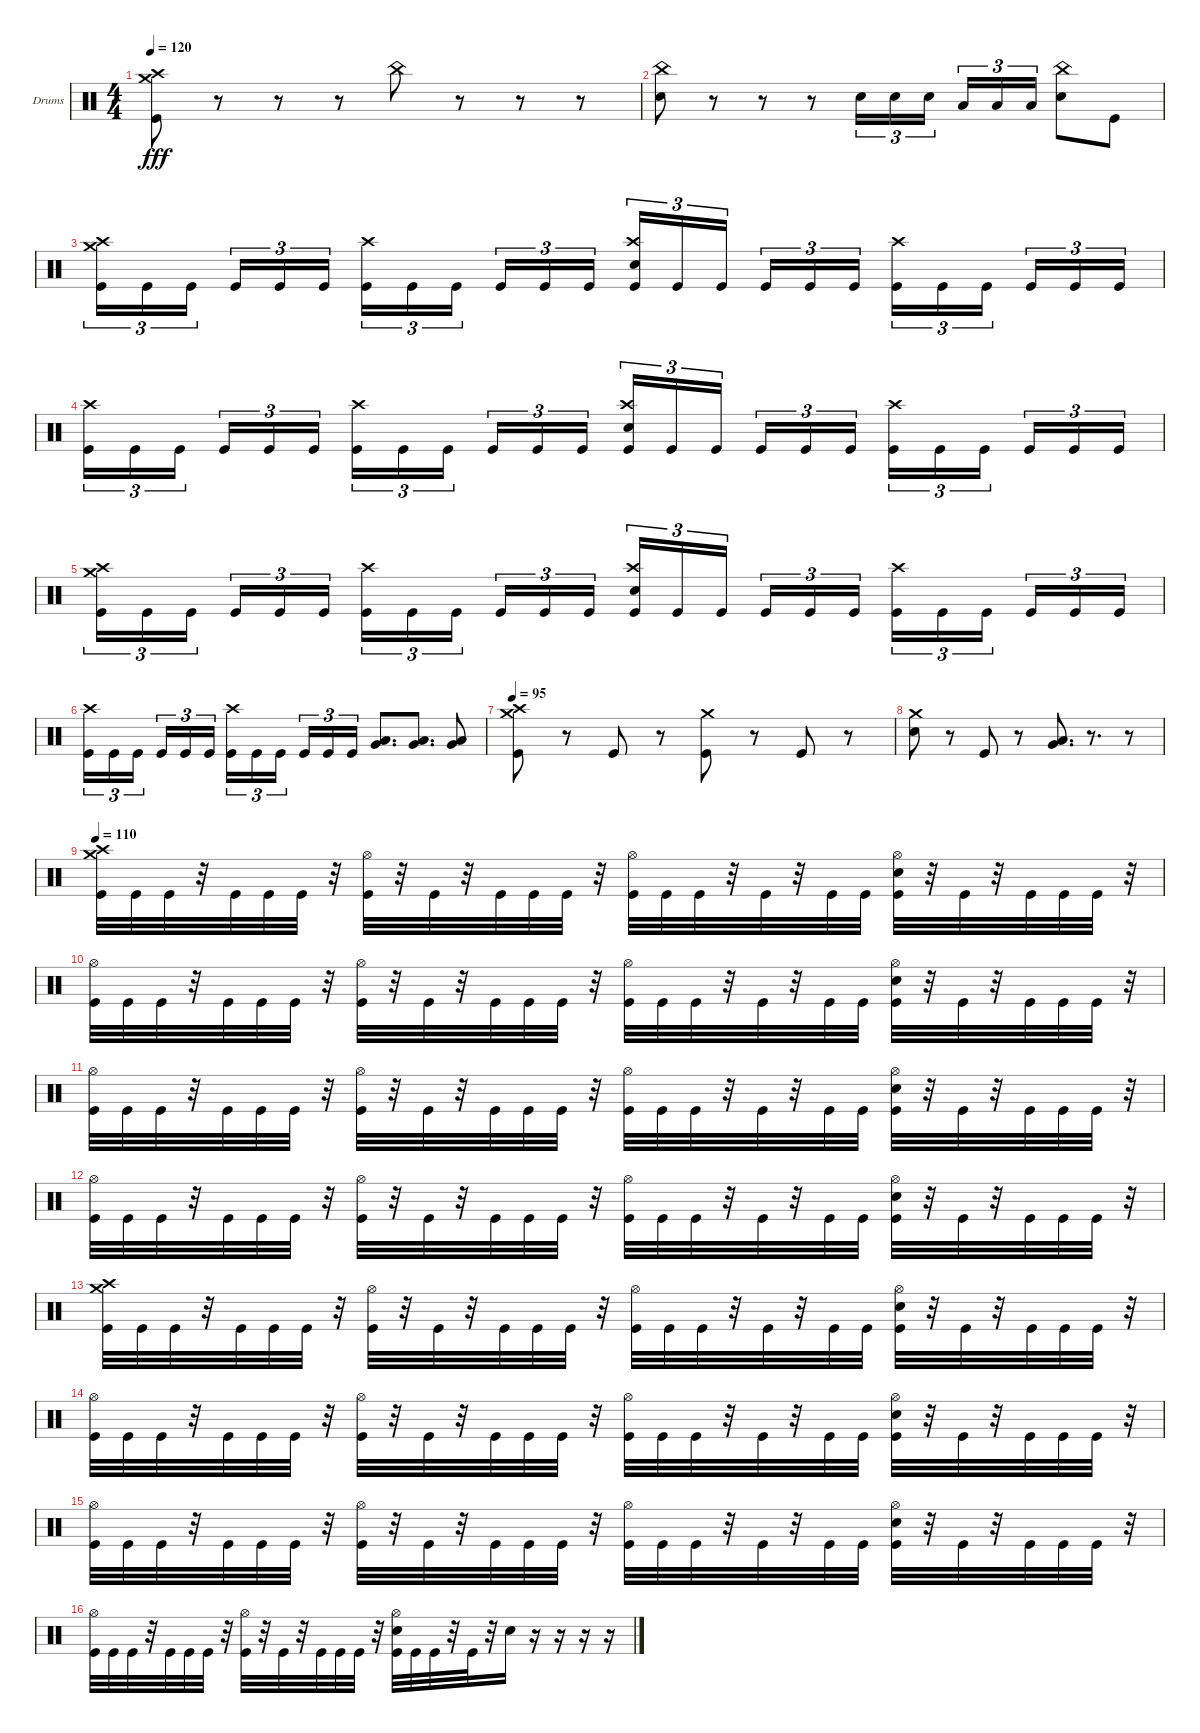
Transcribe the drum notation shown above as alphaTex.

\bracketExtendMode groupsimilarinstruments
\firstSystemTrackNameOrientation horizontal
\otherSystemsTrackNameOrientation horizontal
\track ("Drumkit" "Drums") {instrument percussion}
\staff {score}
\articulation defaults
\ts (4 4)
\tempo 120
\clef neutral
\ks c
("Kick (hit)" "Crash high (hit)" "Crash medium (hit)").8{dy fff} r.8 r.8 r.8 "China (hit)".8 r.8 r.8 r.8 |
("Snare (hit) 2" "China (hit)").8 r.8 r.8 r.8 "Snare (hit) 2".16{tu (3 2)} "Snare (hit) 2".16{tu (3 2)} "Snare (hit) 2".16{tu (3 2)} "Low Tom (hit)".16{tu (3 2)} "Low Tom (hit)".16{tu (3 2)} "Low Tom (hit)".16{tu (3 2)} ("Snare (hit) 2" "China (hit)").8 "Kick (hit)".8 |
("Kick (hit)" "Crash high (hit)" "Crash medium (hit)").16{tu (3 2)} "Kick (hit)".16{tu (3 2)} "Kick (hit)".16{tu (3 2)} "Kick (hit)".16{tu (3 2)} "Kick (hit)".16{tu (3 2)} "Kick (hit)".16{tu (3 2)} ("Kick (hit)" "Crash high (hit)").16{tu (3 2)} "Kick (hit)".16{tu (3 2)} "Kick (hit)".16{tu (3 2)} "Kick (hit)".16{tu (3 2)} "Kick (hit)".16{tu (3 2)} "Kick (hit)".16{tu (3 2)} ("Kick (hit)" "Crash high (hit)" "Snare (hit) 2").16{tu (3 2)} "Kick (hit)".16{tu (3 2)} "Kick (hit)".16{tu (3 2)} "Kick (hit)".16{tu (3 2)} "Kick (hit)".16{tu (3 2)} "Kick (hit)".16{tu (3 2)} ("Kick (hit)" "Crash high (hit)").16{tu (3 2)} "Kick (hit)".16{tu (3 2)} "Kick (hit)".16{tu (3 2)} "Kick (hit)".16{tu (3 2)} "Kick (hit)".16{tu (3 2)} "Kick (hit)".16{tu (3 2)} |
("Kick (hit)" "Crash high (hit)").16{tu (3 2)} "Kick (hit)".16{tu (3 2)} "Kick (hit)".16{tu (3 2)} "Kick (hit)".16{tu (3 2)} "Kick (hit)".16{tu (3 2)} "Kick (hit)".16{tu (3 2)} ("Kick (hit)" "Crash high (hit)").16{tu (3 2)} "Kick (hit)".16{tu (3 2)} "Kick (hit)".16{tu (3 2)} "Kick (hit)".16{tu (3 2)} "Kick (hit)".16{tu (3 2)} "Kick (hit)".16{tu (3 2)} ("Kick (hit)" "Crash high (hit)" "Snare (hit) 2").16{tu (3 2)} "Kick (hit)".16{tu (3 2)} "Kick (hit)".16{tu (3 2)} "Kick (hit)".16{tu (3 2)} "Kick (hit)".16{tu (3 2)} "Kick (hit)".16{tu (3 2)} ("Kick (hit)" "Crash high (hit)").16{tu (3 2)} "Kick (hit)".16{tu (3 2)} "Kick (hit)".16{tu (3 2)} "Kick (hit)".16{tu (3 2)} "Kick (hit)".16{tu (3 2)} "Kick (hit)".16{tu (3 2)} |
("Kick (hit)" "Crash high (hit)" "Crash medium (hit)").16{tu (3 2)} "Kick (hit)".16{tu (3 2)} "Kick (hit)".16{tu (3 2)} "Kick (hit)".16{tu (3 2)} "Kick (hit)".16{tu (3 2)} "Kick (hit)".16{tu (3 2)} ("Kick (hit)" "Crash high (hit)").16{tu (3 2)} "Kick (hit)".16{tu (3 2)} "Kick (hit)".16{tu (3 2)} "Kick (hit)".16{tu (3 2)} "Kick (hit)".16{tu (3 2)} "Kick (hit)".16{tu (3 2)} ("Kick (hit)" "Crash high (hit)" "Snare (hit) 2").16{tu (3 2)} "Kick (hit)".16{tu (3 2)} "Kick (hit)".16{tu (3 2)} "Kick (hit)".16{tu (3 2)} "Kick (hit)".16{tu (3 2)} "Kick (hit)".16{tu (3 2)} ("Kick (hit)" "Crash high (hit)").16{tu (3 2)} "Kick (hit)".16{tu (3 2)} "Kick (hit)".16{tu (3 2)} "Kick (hit)".16{tu (3 2)} "Kick (hit)".16{tu (3 2)} "Kick (hit)".16{tu (3 2)} |
("Kick (hit)" "Crash high (hit)").16{tu (3 2)} "Kick (hit)".16{tu (3 2)} "Kick (hit)".16{tu (3 2)} "Kick (hit)".16{tu (3 2)} "Kick (hit)".16{tu (3 2)} "Kick (hit)".16{tu (3 2)} ("Kick (hit)" "Crash high (hit)").16{tu (3 2)} "Kick (hit)".16{tu (3 2)} "Kick (hit)".16{tu (3 2)} "Kick (hit)".16{tu (3 2)} "Kick (hit)".16{tu (3 2)} "Kick (hit)".16{tu (3 2)} ("Very Low Tom (hit)" "Low Tom (hit)").8{d} ("Very Low Tom (hit)" "Low Tom (hit)").8{d} ("Very Low Tom (hit)" "Low Tom (hit)").8 |
\tempo 95
("Kick (hit)" "Crash high (hit)" "Crash medium (hit)").8 r.8 "Kick (hit)".8 r.8 ("Crash medium (hit)" "Kick (hit)").8 r.8 "Kick (hit)".8 r.8 |
("Crash medium (hit)" "Snare (hit) 2").8 r.8 "Kick (hit)".8 r.8 ("Very Low Tom (hit)" "Low Tom (hit)").8{d} r.8{d} r.8 |
\tempo 110
("Kick (hit)" "Crash high (hit)" "Crash medium (hit)").32 "Kick (hit)".32 "Kick (hit)".32 r.32 "Kick (hit)".32 "Kick (hit)".32 "Kick (hit)".32 r.32 ("Kick (hit)" "Hi-Hat (open)").32 r.32 "Kick (hit)".32 r.32 "Kick (hit)".32 "Kick (hit)".32 "Kick (hit)".32 r.32 ("Kick (hit)" "Hi-Hat (open)").32 "Kick (hit)".32 "Kick (hit)".32 r.32 "Kick (hit)".32 r.32 "Kick (hit)".32 "Kick (hit)".32 ("Kick (hit)" "Hi-Hat (open)" "Snare (hit) 2").32 r.32 "Kick (hit)".32 r.32 "Kick (hit)".32 "Kick (hit)".32 "Kick (hit)".32 r.32 |
("Kick (hit)" "Hi-Hat (open)").32 "Kick (hit)".32 "Kick (hit)".32 r.32 "Kick (hit)".32 "Kick (hit)".32 "Kick (hit)".32 r.32 ("Kick (hit)" "Hi-Hat (open)").32 r.32 "Kick (hit)".32 r.32 "Kick (hit)".32 "Kick (hit)".32 "Kick (hit)".32 r.32 ("Kick (hit)" "Hi-Hat (open)").32 "Kick (hit)".32 "Kick (hit)".32 r.32 "Kick (hit)".32 r.32 "Kick (hit)".32 "Kick (hit)".32 ("Kick (hit)" "Hi-Hat (open)" "Snare (hit) 2").32 r.32 "Kick (hit)".32 r.32 "Kick (hit)".32 "Kick (hit)".32 "Kick (hit)".32 r.32 |
("Kick (hit)" "Hi-Hat (open)").32 "Kick (hit)".32 "Kick (hit)".32 r.32 "Kick (hit)".32 "Kick (hit)".32 "Kick (hit)".32 r.32 ("Kick (hit)" "Hi-Hat (open)").32 r.32 "Kick (hit)".32 r.32 "Kick (hit)".32 "Kick (hit)".32 "Kick (hit)".32 r.32 ("Kick (hit)" "Hi-Hat (open)").32 "Kick (hit)".32 "Kick (hit)".32 r.32 "Kick (hit)".32 r.32 "Kick (hit)".32 "Kick (hit)".32 ("Kick (hit)" "Hi-Hat (open)" "Snare (hit) 2").32 r.32 "Kick (hit)".32 r.32 "Kick (hit)".32 "Kick (hit)".32 "Kick (hit)".32 r.32 |
("Kick (hit)" "Hi-Hat (open)").32 "Kick (hit)".32 "Kick (hit)".32 r.32 "Kick (hit)".32 "Kick (hit)".32 "Kick (hit)".32 r.32 ("Kick (hit)" "Hi-Hat (open)").32 r.32 "Kick (hit)".32 r.32 "Kick (hit)".32 "Kick (hit)".32 "Kick (hit)".32 r.32 ("Kick (hit)" "Hi-Hat (open)").32 "Kick (hit)".32 "Kick (hit)".32 r.32 "Kick (hit)".32 r.32 "Kick (hit)".32 "Kick (hit)".32 ("Kick (hit)" "Hi-Hat (open)" "Snare (hit) 2").32 r.32 "Kick (hit)".32 r.32 "Kick (hit)".32 "Kick (hit)".32 "Kick (hit)".32 r.32 |
("Kick (hit)" "Crash high (hit)" "Crash medium (hit)").32 "Kick (hit)".32 "Kick (hit)".32 r.32 "Kick (hit)".32 "Kick (hit)".32 "Kick (hit)".32 r.32 ("Kick (hit)" "Hi-Hat (open)").32 r.32 "Kick (hit)".32 r.32 "Kick (hit)".32 "Kick (hit)".32 "Kick (hit)".32 r.32 ("Kick (hit)" "Hi-Hat (open)").32 "Kick (hit)".32 "Kick (hit)".32 r.32 "Kick (hit)".32 r.32 "Kick (hit)".32 "Kick (hit)".32 ("Kick (hit)" "Hi-Hat (open)" "Snare (hit) 2").32 r.32 "Kick (hit)".32 r.32 "Kick (hit)".32 "Kick (hit)".32 "Kick (hit)".32 r.32 |
("Kick (hit)" "Hi-Hat (open)").32 "Kick (hit)".32 "Kick (hit)".32 r.32 "Kick (hit)".32 "Kick (hit)".32 "Kick (hit)".32 r.32 ("Kick (hit)" "Hi-Hat (open)").32 r.32 "Kick (hit)".32 r.32 "Kick (hit)".32 "Kick (hit)".32 "Kick (hit)".32 r.32 ("Kick (hit)" "Hi-Hat (open)").32 "Kick (hit)".32 "Kick (hit)".32 r.32 "Kick (hit)".32 r.32 "Kick (hit)".32 "Kick (hit)".32 ("Kick (hit)" "Hi-Hat (open)" "Snare (hit) 2").32 r.32 "Kick (hit)".32 r.32 "Kick (hit)".32 "Kick (hit)".32 "Kick (hit)".32 r.32 |
("Kick (hit)" "Hi-Hat (open)").32 "Kick (hit)".32 "Kick (hit)".32 r.32 "Kick (hit)".32 "Kick (hit)".32 "Kick (hit)".32 r.32 ("Kick (hit)" "Hi-Hat (open)").32 r.32 "Kick (hit)".32 r.32 "Kick (hit)".32 "Kick (hit)".32 "Kick (hit)".32 r.32 ("Kick (hit)" "Hi-Hat (open)").32 "Kick (hit)".32 "Kick (hit)".32 r.32 "Kick (hit)".32 r.32 "Kick (hit)".32 "Kick (hit)".32 ("Kick (hit)" "Hi-Hat (open)" "Snare (hit) 2").32 r.32 "Kick (hit)".32 r.32 "Kick (hit)".32 "Kick (hit)".32 "Kick (hit)".32 r.32 |
("Kick (hit)" "Hi-Hat (open)").32 "Kick (hit)".32 "Kick (hit)".32 r.32 "Kick (hit)".32 "Kick (hit)".32 "Kick (hit)".32 r.32 ("Kick (hit)" "Hi-Hat (open)").32 r.32 "Kick (hit)".32 r.32 "Kick (hit)".32 "Kick (hit)".32 "Kick (hit)".32 r.32 ("Kick (hit)" "Snare (hit) 2" "Hi-Hat (open)").32 "Kick (hit)".32 "Kick (hit)".32 r.32 "Kick (hit)".32 r.32 "Snare (hit) 2".16 r.16 r.16 r.16 r.16
